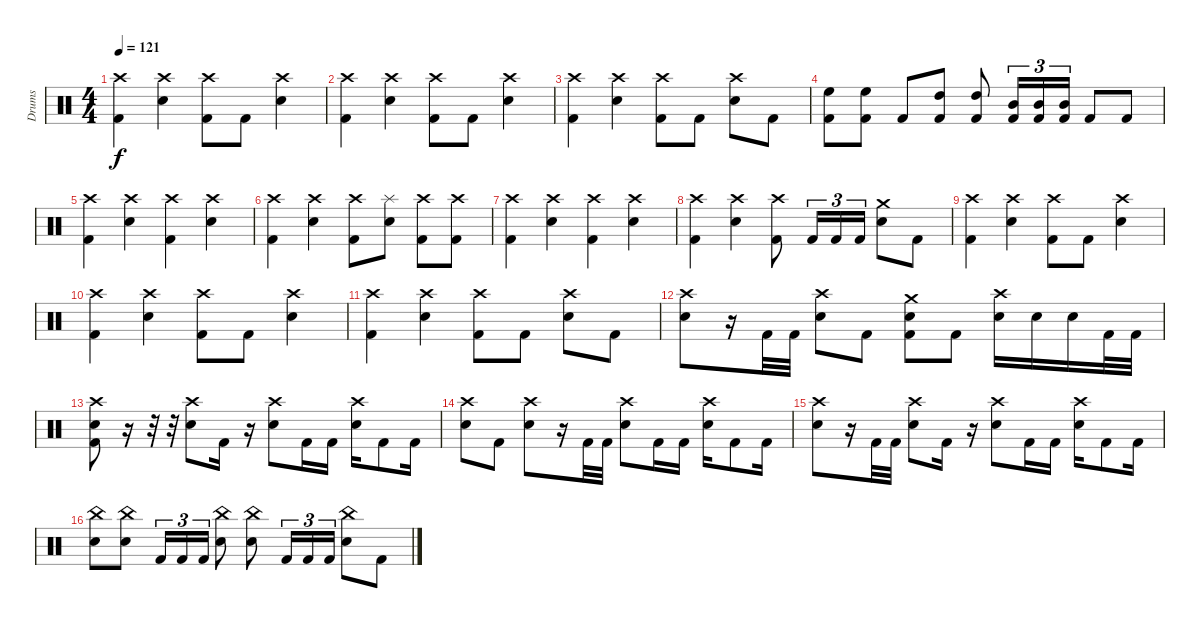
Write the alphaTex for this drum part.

\track ("Drums" "Drums") {instrument percussion}
\staff {score}
\articulation defaults
\ts (4 4)
\tempo 121
\clef neutral
\ks c
("Crash high (hit)" "Kick (hit) 2").4{dy f} ("Crash high (hit)" "Electric Snare (hit)").4 ("Crash high (hit)" "Kick (hit) 2").8 "Kick (hit) 2".8 ("Crash high (hit)" "Electric Snare (hit)").4 |
("Crash high (hit)" "Kick (hit) 2").4 ("Crash high (hit)" "Electric Snare (hit)").4 ("Crash high (hit)" "Kick (hit) 2").8 "Kick (hit) 2".8 ("Crash high (hit)" "Electric Snare (hit)").4 |
("Crash high (hit)" "Kick (hit) 2").4 ("Crash high (hit)" "Electric Snare (hit)").4 ("Crash high (hit)" "Kick (hit) 2").8 "Kick (hit) 2".8 ("Crash high (hit)" "Electric Snare (hit)").8 "Kick (hit) 2".8 |
("High Floor Tom (hit)" "Kick (hit) 2").8 ("High Floor Tom (hit)" "Kick (hit) 2").8 "Kick (hit) 2".8 ("High Tom (hit)" "Kick (hit) 2").8 ("High Tom (hit)" "Kick (hit) 2").8 ("Mid Tom (hit)" "Kick (hit) 2").16{tu (3 2)} ("Mid Tom (hit)" "Kick (hit) 2").16{tu (3 2)} ("Mid Tom (hit)" "Kick (hit) 2").16{tu (3 2)} "Kick (hit) 2".8 "Kick (hit) 2".8 |
("Crash high (hit)" "Kick (hit) 2").4 ("Crash high (hit)" "Electric Snare (hit)").4 ("Crash high (hit)" "Kick (hit) 2").4 ("Crash high (hit)" "Electric Snare (hit)").4 |
("Crash high (hit)" "Kick (hit) 2").4 ("Crash high (hit)" "Electric Snare (hit)").4 ("Crash high (hit)" "Kick (hit) 2").8 ("Splash (hit)" "Electric Snare (hit)").8 ("Crash high (hit)" "Kick (hit) 2").8 ("Crash high (hit)" "Kick (hit) 2").8 |
("Crash high (hit)" "Kick (hit) 2").4 ("Crash high (hit)" "Electric Snare (hit)").4 ("Crash high (hit)" "Kick (hit) 2").4 ("Crash high (hit)" "Electric Snare (hit)").4 |
("Crash high (hit)" "Kick (hit) 2").4 ("Crash high (hit)" "Electric Snare (hit)").4 ("Crash high (hit)" "Kick (hit) 2").8 "Kick (hit) 2".16{tu (3 2)} "Kick (hit) 2".16{tu (3 2)} "Kick (hit) 2".16{tu (3 2)} ("Crash medium (hit)" "Electric Snare (hit)").8 "Kick (hit) 2".8 |
("Crash high (hit)" "Kick (hit) 2").4 ("Crash high (hit)" "Electric Snare (hit)").4 ("Crash high (hit)" "Kick (hit) 2").8 "Kick (hit) 2".8 ("Crash high (hit)" "Electric Snare (hit)").4 |
("Crash high (hit)" "Kick (hit) 2").4 ("Crash high (hit)" "Electric Snare (hit)").4 ("Crash high (hit)" "Kick (hit) 2").8 "Kick (hit) 2".8 ("Crash high (hit)" "Electric Snare (hit)").4 |
("Crash high (hit)" "Kick (hit) 2").4 ("Crash high (hit)" "Electric Snare (hit)").4 ("Crash high (hit)" "Kick (hit) 2").8 "Kick (hit) 2".8 ("Crash high (hit)" "Electric Snare (hit)").8 "Kick (hit) 2".8 |
("Crash high (hit)" "Electric Snare (hit)").8 r.16 "Kick (hit) 2".32 "Kick (hit) 2".32 ("Crash high (hit)" "Electric Snare (hit)").8 "Kick (hit) 2".8 ("Crash medium (hit)" "Electric Snare (hit)" "Kick (hit) 2").8 "Kick (hit) 2".8 ("Crash high (hit)" "Electric Snare (hit)").16 "Electric Snare (hit)".16 "Electric Snare (hit)".16 "Kick (hit) 2".32 "Kick (hit) 2".32 |
("Crash high (hit)" "Electric Snare (hit)" "Kick (hit) 2").8 r.16 r.32 r.32 ("Crash high (hit)" "Electric Snare (hit)").8 "Kick (hit) 2".16 r.16 ("Crash high (hit)" "Electric Snare (hit)").8 "Kick (hit) 2".16 "Kick (hit) 2".16 ("Crash high (hit)" "Electric Snare (hit)").16 "Kick (hit) 2".8 "Kick (hit) 2".16 |
("Crash high (hit)" "Electric Snare (hit)").8 "Kick (hit) 2".8 ("Crash high (hit)" "Electric Snare (hit)").8 r.16 "Kick (hit) 2".32 "Kick (hit) 2".32 ("Crash high (hit)" "Electric Snare (hit)").8 "Kick (hit) 2".16 "Kick (hit) 2".16 ("Crash high (hit)" "Electric Snare (hit)").16 "Kick (hit) 2".8 "Kick (hit) 2".16 |
("Crash high (hit)" "Electric Snare (hit)").8 r.16 "Kick (hit) 2".32 "Kick (hit) 2".32 ("Crash high (hit)" "Electric Snare (hit)").8 "Kick (hit) 2".16 r.16 ("Crash high (hit)" "Electric Snare (hit)").8 "Kick (hit) 2".16 "Kick (hit) 2".16 ("Crash high (hit)" "Electric Snare (hit)").16 "Kick (hit) 2".8 "Kick (hit) 2".16 |
("China (hit)" "Electric Snare (hit)").8 ("China (hit)" "Electric Snare (hit)").8 "Kick (hit) 2".16{tu (3 2)} "Kick (hit) 2".16{tu (3 2)} "Kick (hit) 2".16{tu (3 2)} ("China (hit)" "Electric Snare (hit)").8 ("China (hit)" "Electric Snare (hit)").8 "Kick (hit) 2".16{tu (3 2)} "Kick (hit) 2".16{tu (3 2)} "Kick (hit) 2".16{tu (3 2)} ("China (hit)" "Electric Snare (hit)").8 "Kick (hit) 2".8
